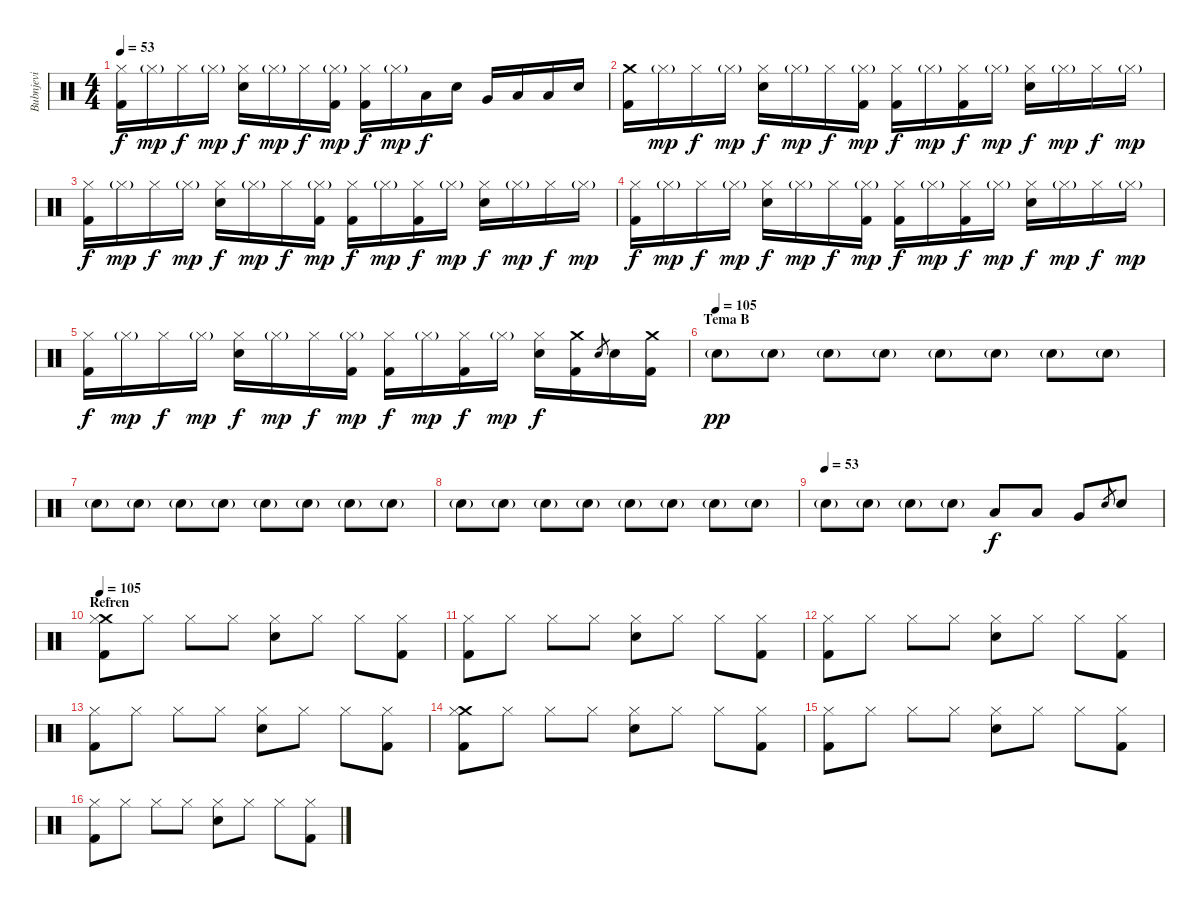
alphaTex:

\track ("Bubnjevi" "Bubnjevi") {instrument percussion}
\staff {score}
\articulation defaults
\ts (4 4)
\tempo 53
\clef neutral
\ks c
("Hi-Hat (closed)" "Kick (hit) 2").16{dy f} "Hi-Hat (closed)"{g}.16{dy mp} "Hi-Hat (closed)".16{dy f} "Hi-Hat (closed)"{g}.16{dy mp} ("Electric Snare (hit)" "Hi-Hat (closed)").16{dy f} "Hi-Hat (closed)"{g}.16{dy mp} "Hi-Hat (closed)".16{dy f} ("Hi-Hat (closed)"{g} "Kick (hit) 2").16{dy mp} ("Hi-Hat (closed)" "Kick (hit) 2").16{dy f} "Hi-Hat (closed)"{g}.16{dy mp} "Low Tom (hit)".16{dy f} "Electric Snare (hit)".16 "Very Low Tom (hit)".16 "Low Floor Tom (hit)".16 "Low Floor Tom (hit)".16 "Electric Snare (hit)".16 |
("Crash medium (hit)" "Kick (hit) 2").16 "Hi-Hat (closed)"{g}.16{dy mp} "Hi-Hat (closed)".16{dy f} "Hi-Hat (closed)"{g}.16{dy mp} ("Electric Snare (hit)" "Hi-Hat (closed)").16{dy f} "Hi-Hat (closed)"{g}.16{dy mp} "Hi-Hat (closed)".16{dy f} ("Hi-Hat (closed)"{g} "Kick (hit) 2").16{dy mp} ("Hi-Hat (closed)" "Kick (hit) 2").16{dy f} "Hi-Hat (closed)"{g}.16{dy mp} ("Hi-Hat (closed)" "Kick (hit) 2").16{dy f} "Hi-Hat (closed)"{g}.16{dy mp} ("Electric Snare (hit)" "Hi-Hat (closed)").16{dy f} "Hi-Hat (closed)"{g}.16{dy mp} "Hi-Hat (closed)".16{dy f} "Hi-Hat (closed)"{g}.16{dy mp} |
("Hi-Hat (closed)" "Kick (hit) 2").16{dy f} "Hi-Hat (closed)"{g}.16{dy mp} "Hi-Hat (closed)".16{dy f} "Hi-Hat (closed)"{g}.16{dy mp} ("Electric Snare (hit)" "Hi-Hat (closed)").16{dy f} "Hi-Hat (closed)"{g}.16{dy mp} "Hi-Hat (closed)".16{dy f} ("Hi-Hat (closed)"{g} "Kick (hit) 2").16{dy mp} ("Hi-Hat (closed)" "Kick (hit) 2").16{dy f} "Hi-Hat (closed)"{g}.16{dy mp} ("Hi-Hat (closed)" "Kick (hit) 2").16{dy f} "Hi-Hat (closed)"{g}.16{dy mp} ("Electric Snare (hit)" "Hi-Hat (closed)").16{dy f} "Hi-Hat (closed)"{g}.16{dy mp} "Hi-Hat (closed)".16{dy f} "Hi-Hat (closed)"{g}.16{dy mp} |
("Hi-Hat (closed)" "Kick (hit) 2").16{dy f} "Hi-Hat (closed)"{g}.16{dy mp} "Hi-Hat (closed)".16{dy f} "Hi-Hat (closed)"{g}.16{dy mp} ("Electric Snare (hit)" "Hi-Hat (closed)").16{dy f} "Hi-Hat (closed)"{g}.16{dy mp} "Hi-Hat (closed)".16{dy f} ("Hi-Hat (closed)"{g} "Kick (hit) 2").16{dy mp} ("Hi-Hat (closed)" "Kick (hit) 2").16{dy f} "Hi-Hat (closed)"{g}.16{dy mp} ("Hi-Hat (closed)" "Kick (hit) 2").16{dy f} "Hi-Hat (closed)"{g}.16{dy mp} ("Electric Snare (hit)" "Hi-Hat (closed)").16{dy f} "Hi-Hat (closed)"{g}.16{dy mp} "Hi-Hat (closed)".16{dy f} "Hi-Hat (closed)"{g}.16{dy mp} |
("Hi-Hat (closed)" "Kick (hit) 2").16{dy f} "Hi-Hat (closed)"{g}.16{dy mp} "Hi-Hat (closed)".16{dy f} "Hi-Hat (closed)"{g}.16{dy mp} ("Electric Snare (hit)" "Hi-Hat (closed)").16{dy f} "Hi-Hat (closed)"{g}.16{dy mp} "Hi-Hat (closed)".16{dy f} ("Hi-Hat (closed)"{g} "Kick (hit) 2").16{dy mp} ("Hi-Hat (closed)" "Kick (hit) 2").16{dy f} "Hi-Hat (closed)"{g}.16{dy mp} ("Hi-Hat (closed)" "Kick (hit) 2").16{dy f} "Hi-Hat (closed)"{g}.16{dy mp} ("Electric Snare (hit)" "Hi-Hat (closed)").16{dy f} ("Crash medium (hit)" "Kick (hit) 2").16 "Electric Snare (hit)".8{gr} "Electric Snare (hit)".16 ("Crash medium (hit)" "Kick (hit) 2").16 |
\section ("" "Tema B")
\tempo (105)
"Electric Snare (hit)"{g}.8{dy pp} "Electric Snare (hit)"{g}.8 "Electric Snare (hit)"{g}.8 "Electric Snare (hit)"{g}.8 "Electric Snare (hit)"{g}.8 "Electric Snare (hit)"{g}.8 "Electric Snare (hit)"{g}.8 "Electric Snare (hit)"{g}.8 |
"Electric Snare (hit)"{g}.8 "Electric Snare (hit)"{g}.8 "Electric Snare (hit)"{g}.8 "Electric Snare (hit)"{g}.8 "Electric Snare (hit)"{g}.8 "Electric Snare (hit)"{g}.8 "Electric Snare (hit)"{g}.8 "Electric Snare (hit)"{g}.8 |
"Electric Snare (hit)"{g}.8 "Electric Snare (hit)"{g}.8 "Electric Snare (hit)"{g}.8 "Electric Snare (hit)"{g}.8 "Electric Snare (hit)"{g}.8 "Electric Snare (hit)"{g}.8 "Electric Snare (hit)"{g}.8 "Electric Snare (hit)"{g}.8 |
\tempo (53)
"Electric Snare (hit)"{g}.8 "Electric Snare (hit)"{g}.8 "Electric Snare (hit)"{g}.8 "Electric Snare (hit)"{g}.8 "Low Tom (hit)".8{dy f} "Low Floor Tom (hit)".8 "Very Low Tom (hit)".8 "Electric Snare (hit)".8{gr} "Electric Snare (hit)".8 |
\section ("" "Refren")
\tempo 105
("Crash medium (hit)" "Hi-Hat (closed)" "Kick (hit) 2").8 "Hi-Hat (closed)".8 "Hi-Hat (closed)".8 "Hi-Hat (closed)".8 ("Electric Snare (hit)" "Hi-Hat (closed)").8 "Hi-Hat (closed)".8 "Hi-Hat (closed)".8 ("Hi-Hat (closed)" "Kick (hit) 2").8 |
("Hi-Hat (closed)" "Kick (hit) 2").8 "Hi-Hat (closed)".8 "Hi-Hat (closed)".8 "Hi-Hat (closed)".8 ("Electric Snare (hit)" "Hi-Hat (closed)").8 "Hi-Hat (closed)".8 "Hi-Hat (closed)".8 ("Hi-Hat (closed)" "Kick (hit) 2").8 |
("Hi-Hat (closed)" "Kick (hit) 2").8 "Hi-Hat (closed)".8 "Hi-Hat (closed)".8 "Hi-Hat (closed)".8 ("Electric Snare (hit)" "Hi-Hat (closed)").8 "Hi-Hat (closed)".8 "Hi-Hat (closed)".8 ("Hi-Hat (closed)" "Kick (hit) 2").8 |
("Hi-Hat (closed)" "Kick (hit) 2").8 "Hi-Hat (closed)".8 "Hi-Hat (closed)".8 "Hi-Hat (closed)".8 ("Electric Snare (hit)" "Hi-Hat (closed)").8 "Hi-Hat (closed)".8 "Hi-Hat (closed)".8 ("Hi-Hat (closed)" "Kick (hit) 2").8 |
("Crash medium (hit)" "Hi-Hat (closed)" "Kick (hit) 2").8 "Hi-Hat (closed)".8 "Hi-Hat (closed)".8 "Hi-Hat (closed)".8 ("Electric Snare (hit)" "Hi-Hat (closed)").8 "Hi-Hat (closed)".8 "Hi-Hat (closed)".8 ("Hi-Hat (closed)" "Kick (hit) 2").8 |
("Hi-Hat (closed)" "Kick (hit) 2").8 "Hi-Hat (closed)".8 "Hi-Hat (closed)".8 "Hi-Hat (closed)".8 ("Electric Snare (hit)" "Hi-Hat (closed)").8 "Hi-Hat (closed)".8 "Hi-Hat (closed)".8 ("Hi-Hat (closed)" "Kick (hit) 2").8 |
("Hi-Hat (closed)" "Kick (hit) 2").8 "Hi-Hat (closed)".8 "Hi-Hat (closed)".8 "Hi-Hat (closed)".8 ("Electric Snare (hit)" "Hi-Hat (closed)").8 "Hi-Hat (closed)".8 "Hi-Hat (closed)".8 ("Hi-Hat (closed)" "Kick (hit) 2").8
